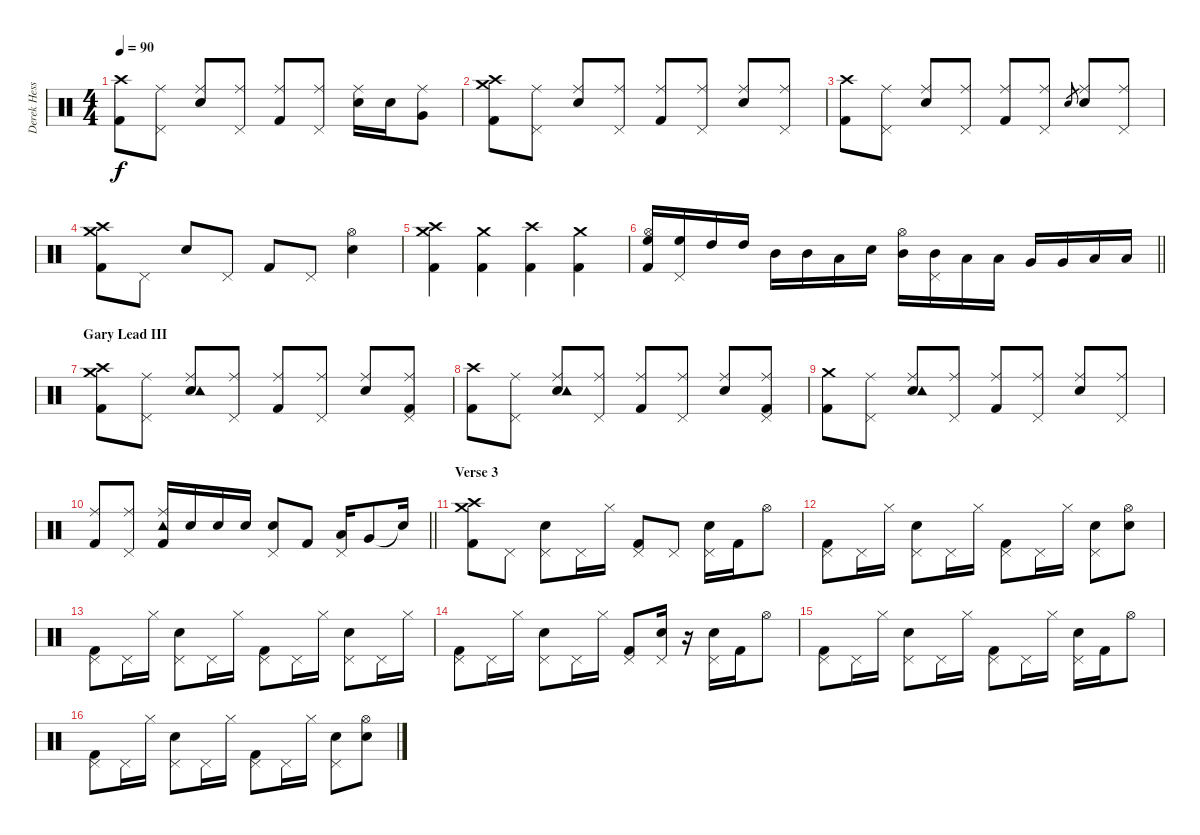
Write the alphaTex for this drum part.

\track ("Derek Hess (Drums and Percussion)" "Derek Hess") {instrument percussion}
\staff {score}
\articulation defaults
\ts (4 4)
\tempo 90
\clef neutral
\ks c
("Crash high (hit)" "Kick (hit) 2").8{dy f} ("Ride (middle)" "Pedal Hi-Hat (hit)").8 ("Ride (middle)" "Snare (hit) 2").8 ("Ride (middle)" "Pedal Hi-Hat (hit)").8 ("Ride (middle)" "Kick (hit) 2").8 ("Ride (middle)" "Pedal Hi-Hat (hit)").8 ("Ride (middle)" "Snare (hit) 2").16 "Snare (hit) 2".16 ("Ride (middle)" "Very Low Tom (hit)").8 |
("Crash medium (hit)" "Crash high (hit)" "Kick (hit) 2").8 ("Ride (middle)" "Pedal Hi-Hat (hit)").8 ("Ride (middle)" "Snare (hit) 2").8 ("Ride (middle)" "Pedal Hi-Hat (hit)").8 ("Ride (middle)" "Kick (hit) 2").8 ("Ride (middle)" "Pedal Hi-Hat (hit)").8 ("Ride (middle)" "Snare (hit) 2").8 ("Ride (middle)" "Pedal Hi-Hat (hit)").8 |
("Crash high (hit)" "Kick (hit) 2").8 ("Ride (middle)" "Pedal Hi-Hat (hit)").8 ("Ride (middle)" "Snare (hit) 2").8 ("Ride (middle)" "Pedal Hi-Hat (hit)").8 ("Ride (middle)" "Kick (hit) 2").8 ("Ride (middle)" "Pedal Hi-Hat (hit)").8 "Snare (hit) 2".8{gr} ("Ride (middle)" "Snare (hit) 2").8 ("Ride (middle)" "Pedal Hi-Hat (hit)").8 |
("Crash medium (hit)" "Crash high (hit)" "Kick (hit) 2").8 "Pedal Hi-Hat (hit)".8 "Snare (hit) 2".8 "Pedal Hi-Hat (hit)".8 "Kick (hit) 2".8 "Pedal Hi-Hat (hit)".8 ("Snare (hit) 2" "Hi-Hat (open)").4 |
("Crash high (hit)" "Crash medium (hit)" "Kick (hit) 2").4 ("Crash medium (hit)" "Kick (hit) 2").4 ("Crash high (hit)" "Kick (hit) 2").4 ("Crash medium (hit)" "Kick (hit) 2").4 |
\barLineRight lightlight
("High Floor Tom (hit)" "Hi-Hat (open)" "Kick (hit) 2").16 ("High Floor Tom (hit)" "Pedal Hi-Hat (hit)").16 "High Tom (hit)".16 "High Tom (hit)".16 "Mid Tom (hit)".16 "Mid Tom (hit)".16 "Low Tom (hit)".16 "Snare (hit) 2".16 ("Mid Tom (hit)" "Hi-Hat (open)").16 ("Mid Tom (hit)" "Pedal Hi-Hat (hit)").16 "Low Tom (hit)".16 "Low Tom (hit)".16 "Very Low Tom (hit)".16 "Very Low Tom (hit)".16 "Low Floor Tom (hit)".16 "Low Floor Tom (hit)".16 |
\section ("" "Gary Lead III")
("Crash medium (hit)" "Crash high (hit)" "Kick (hit) 2").8 ("Ride (middle)" "Pedal Hi-Hat (hit)").8 ("Ride (middle)" "Snare (hit) 2" "Tambourine (hit)").8 ("Ride (middle)" "Pedal Hi-Hat (hit)").8 ("Ride (middle)" "Kick (hit) 2").8 ("Ride (middle)" "Pedal Hi-Hat (hit)").8 ("Ride (middle)" "Snare (hit) 2").8 ("Ride (middle)" "Pedal Hi-Hat (hit)" "Kick (hit) 2").8 |
("Crash high (hit)" "Kick (hit) 2").8 ("Ride (middle)" "Pedal Hi-Hat (hit)").8 ("Ride (middle)" "Snare (hit) 2" "Tambourine (hit)").8 ("Ride (middle)" "Pedal Hi-Hat (hit)").8 ("Ride (middle)" "Kick (hit) 2").8 ("Ride (middle)" "Pedal Hi-Hat (hit)").8 ("Ride (middle)" "Snare (hit) 2").8 ("Ride (middle)" "Pedal Hi-Hat (hit)" "Kick (hit) 2").8 |
("Crash medium (hit)" "Kick (hit) 2").8 ("Ride (middle)" "Pedal Hi-Hat (hit)").8 ("Ride (middle)" "Snare (hit) 2" "Tambourine (hit)").8 ("Ride (middle)" "Pedal Hi-Hat (hit)").8 ("Ride (middle)" "Kick (hit) 2").8 ("Ride (middle)" "Pedal Hi-Hat (hit)").8 ("Ride (middle)" "Snare (hit) 2").8 ("Ride (middle)" "Pedal Hi-Hat (hit)").8 |
\barLineRight lightlight
("Ride (middle)" "Kick (hit) 2").8 ("Ride (middle)" "Pedal Hi-Hat (hit)").8 ("Ride (middle)" "Tambourine (hit)" "Kick (hit) 2").16 "Snare (hit) 2".16 "Snare (hit) 2".16 "Snare (hit) 2".16 ("Snare (hit) 2" "Pedal Hi-Hat (hit)").8 "Kick (hit) 2".8 ("Low Tom (hit)" "Pedal Hi-Hat (hit)").16 "Very Low Tom (hit)".8 "Snare (hit)"{t}.16 |
\section ("" "Verse 3")
("Crash medium (hit)" "Crash high (hit)" "Kick (hit) 2").8 "Pedal Hi-Hat (hit)".8 ("Snare (hit) 2" "Pedal Hi-Hat (hit)").8 "Pedal Hi-Hat (hit)".16 "Hi-Hat (closed)".16 ("Pedal Hi-Hat (hit)" "Kick (hit) 2").8 "Pedal Hi-Hat (hit)".8 ("Snare (hit) 2" "Pedal Hi-Hat (hit)").16 "Kick (hit) 2".16 "Hi-Hat (open)".8 |
("Pedal Hi-Hat (hit)" "Kick (hit) 2").8 "Pedal Hi-Hat (hit)".16 "Hi-Hat (closed)".16 ("Snare (hit) 2" "Pedal Hi-Hat (hit)").8 "Pedal Hi-Hat (hit)".16 "Hi-Hat (closed)".16 ("Pedal Hi-Hat (hit)" "Kick (hit) 2").8 "Pedal Hi-Hat (hit)".16 "Hi-Hat (closed)".16 ("Snare (hit) 2" "Pedal Hi-Hat (hit)").8 ("Snare (hit) 2" "Hi-Hat (open)").8 |
("Pedal Hi-Hat (hit)" "Kick (hit) 2").8 "Pedal Hi-Hat (hit)".16 "Hi-Hat (closed)".16 ("Snare (hit) 2" "Pedal Hi-Hat (hit)").8 "Pedal Hi-Hat (hit)".16 "Hi-Hat (closed)".16 ("Pedal Hi-Hat (hit)" "Kick (hit) 2").8 "Pedal Hi-Hat (hit)".16 "Hi-Hat (closed)".16 ("Snare (hit) 2" "Pedal Hi-Hat (hit)").8 "Pedal Hi-Hat (hit)".16 "Hi-Hat (closed)".16 |
("Pedal Hi-Hat (hit)" "Kick (hit) 2").8 "Pedal Hi-Hat (hit)".16 "Hi-Hat (closed)".16 ("Snare (hit) 2" "Pedal Hi-Hat (hit)").8 "Pedal Hi-Hat (hit)".16 "Hi-Hat (closed)".16 ("Pedal Hi-Hat (hit)" "Kick (hit) 2").8 ("Snare (hit) 2" "Pedal Hi-Hat (hit)").16 r.16 ("Snare (hit) 2" "Pedal Hi-Hat (hit)").16 "Kick (hit) 2".16 "Hi-Hat (open)".8 |
("Pedal Hi-Hat (hit)" "Kick (hit) 2").8 "Pedal Hi-Hat (hit)".16 "Hi-Hat (closed)".16 ("Snare (hit) 2" "Pedal Hi-Hat (hit)").8 "Pedal Hi-Hat (hit)".16 "Hi-Hat (closed)".16 ("Pedal Hi-Hat (hit)" "Kick (hit) 2").8 "Pedal Hi-Hat (hit)".16 "Hi-Hat (closed)".16 ("Snare (hit) 2" "Pedal Hi-Hat (hit)").16 "Kick (hit) 2".16 "Hi-Hat (open)".8 |
("Pedal Hi-Hat (hit)" "Kick (hit) 2").8 "Pedal Hi-Hat (hit)".16 "Hi-Hat (closed)".16 ("Snare (hit) 2" "Pedal Hi-Hat (hit)").8 "Pedal Hi-Hat (hit)".16 "Hi-Hat (closed)".16 ("Pedal Hi-Hat (hit)" "Kick (hit) 2").8 "Pedal Hi-Hat (hit)".16 "Hi-Hat (closed)".16 ("Snare (hit) 2" "Pedal Hi-Hat (hit)").8 ("Snare (hit) 2" "Hi-Hat (open)").8
